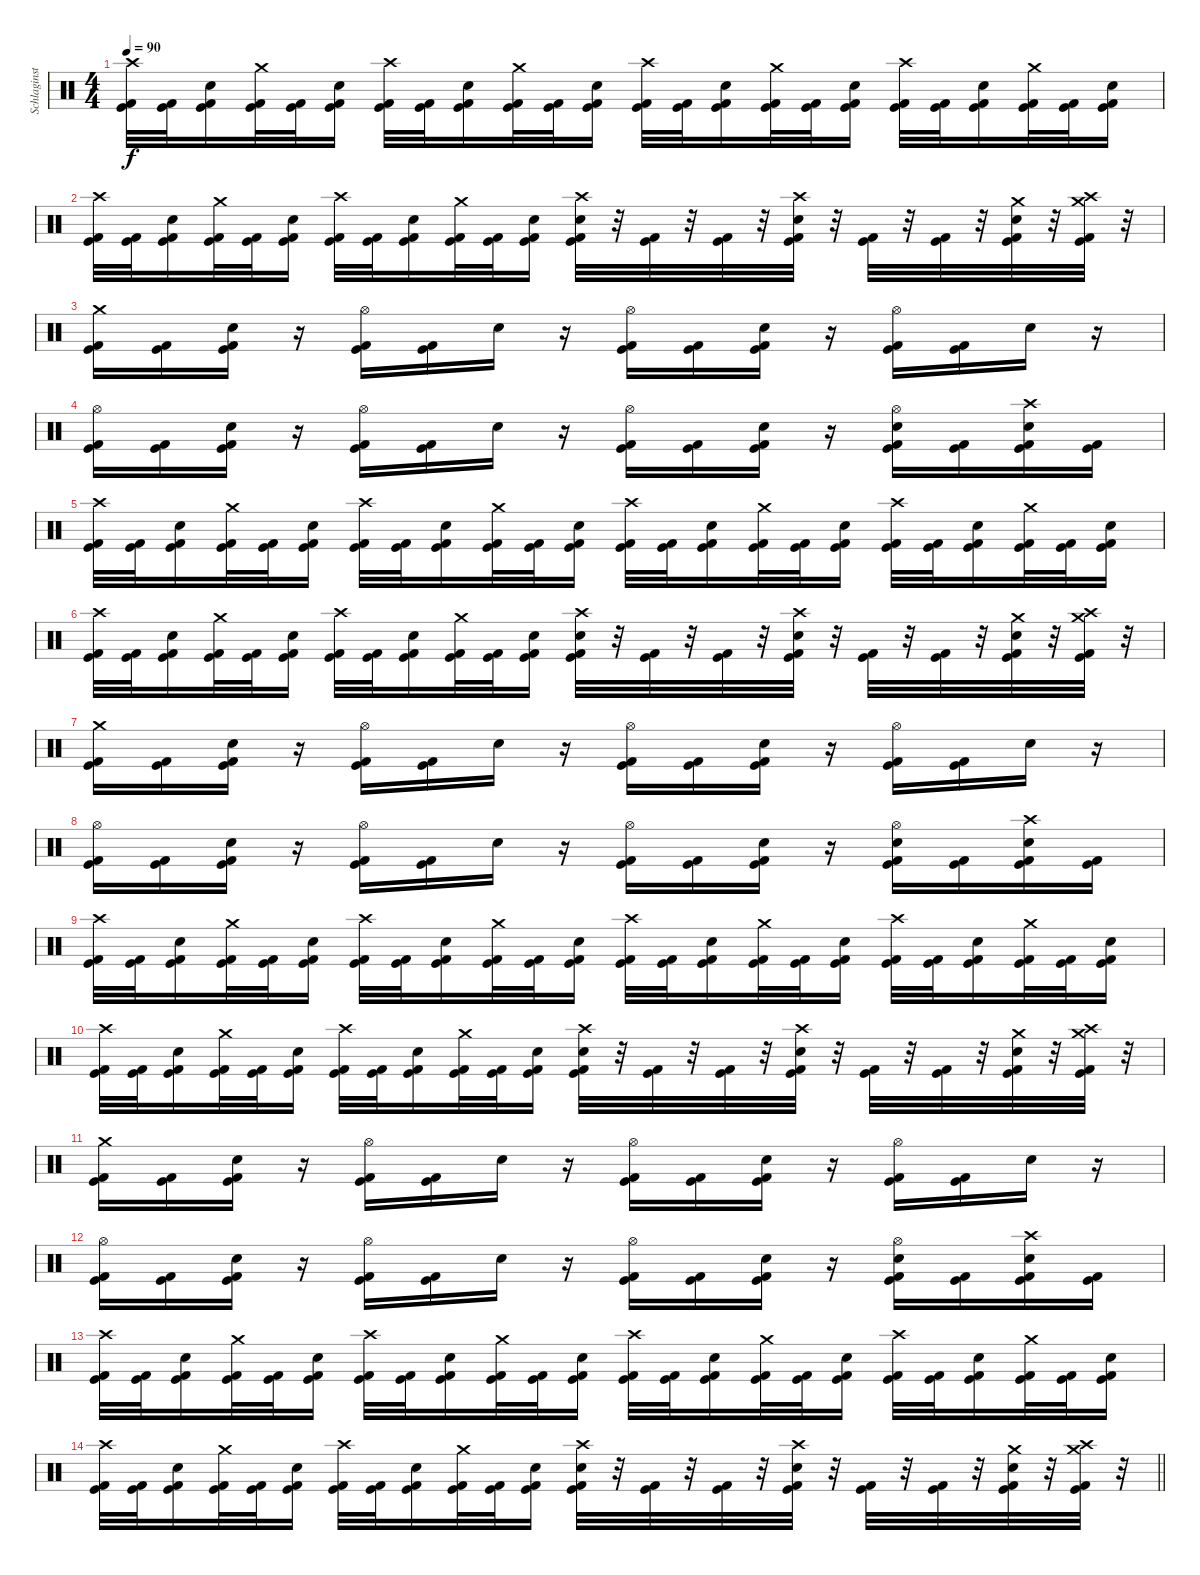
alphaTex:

\track ("Schlaginstrumente - Auswahl" "Schlaginst") {instrument percussion}
\staff {score}
\articulation defaults
\ts (4 4)
\tempo 90
\clef neutral
\ks c
("Crash high (hit)" "Kick (hit)" "Kick (hit) 2").32{dy f} ("Kick (hit)" "Kick (hit) 2").32 ("Electric Snare (hit)" "Kick (hit)" "Kick (hit) 2").16 ("Crash medium (hit)" "Kick (hit)" "Kick (hit) 2").32 ("Kick (hit)" "Kick (hit) 2").32 ("Electric Snare (hit)" "Kick (hit)" "Kick (hit) 2").16 ("Crash high (hit)" "Kick (hit)" "Kick (hit) 2").32 ("Kick (hit)" "Kick (hit) 2").32 ("Electric Snare (hit)" "Kick (hit)" "Kick (hit) 2").16 ("Crash medium (hit)" "Kick (hit)" "Kick (hit) 2").32 ("Kick (hit)" "Kick (hit) 2").32 ("Electric Snare (hit)" "Kick (hit)" "Kick (hit) 2").16 ("Crash high (hit)" "Kick (hit)" "Kick (hit) 2").32 ("Kick (hit)" "Kick (hit) 2").32 ("Electric Snare (hit)" "Kick (hit)" "Kick (hit) 2").16 ("Crash medium (hit)" "Kick (hit)" "Kick (hit) 2").32 ("Kick (hit)" "Kick (hit) 2").32 ("Electric Snare (hit)" "Kick (hit)" "Kick (hit) 2").16 ("Crash high (hit)" "Kick (hit)" "Kick (hit) 2").32 ("Kick (hit)" "Kick (hit) 2").32 ("Electric Snare (hit)" "Kick (hit)" "Kick (hit) 2").16 ("Crash medium (hit)" "Kick (hit)" "Kick (hit) 2").32 ("Kick (hit)" "Kick (hit) 2").32 ("Electric Snare (hit)" "Kick (hit)" "Kick (hit) 2").16 |
("Crash high (hit)" "Kick (hit)" "Kick (hit) 2").32 ("Kick (hit)" "Kick (hit) 2").32 ("Electric Snare (hit)" "Kick (hit)" "Kick (hit) 2").16 ("Crash medium (hit)" "Kick (hit)" "Kick (hit) 2").32 ("Kick (hit)" "Kick (hit) 2").32 ("Electric Snare (hit)" "Kick (hit)" "Kick (hit) 2").16 ("Crash high (hit)" "Kick (hit)" "Kick (hit) 2").32 ("Kick (hit)" "Kick (hit) 2").32 ("Electric Snare (hit)" "Kick (hit)" "Kick (hit) 2").16 ("Crash medium (hit)" "Kick (hit)" "Kick (hit) 2").32 ("Kick (hit)" "Kick (hit) 2").32 ("Electric Snare (hit)" "Kick (hit)" "Kick (hit) 2").16 ("Crash high (hit)" "Electric Snare (hit)" "Kick (hit)" "Kick (hit) 2").32 r.32 ("Kick (hit)" "Kick (hit) 2").32 r.32 ("Kick (hit)" "Kick (hit) 2").32 r.32 ("Crash high (hit)" "Electric Snare (hit)" "Kick (hit)" "Kick (hit) 2").32 r.32 ("Kick (hit)" "Kick (hit) 2").32 r.32 ("Kick (hit)" "Kick (hit) 2").32 r.32 ("Crash medium (hit)" "Electric Snare (hit)" "Kick (hit)" "Kick (hit) 2").32 r.32 ("Crash high (hit)" "Crash medium (hit)" "Kick (hit)" "Kick (hit) 2").32 r.32 |
("Crash medium (hit)" "Kick (hit)" "Kick (hit) 2").16 ("Kick (hit)" "Kick (hit) 2").16 ("Electric Snare (hit)" "Kick (hit)" "Kick (hit) 2").16 r.16 ("Hi-Hat (open)" "Kick (hit)" "Kick (hit) 2").16 ("Kick (hit)" "Kick (hit) 2").16 "Electric Snare (hit)".16 r.16 ("Hi-Hat (open)" "Kick (hit)" "Kick (hit) 2").16 ("Kick (hit)" "Kick (hit) 2").16 ("Electric Snare (hit)" "Kick (hit)" "Kick (hit) 2").16 r.16 ("Hi-Hat (open)" "Kick (hit)" "Kick (hit) 2").16 ("Kick (hit)" "Kick (hit) 2").16 "Electric Snare (hit)".16 r.16 |
("Hi-Hat (open)" "Kick (hit)" "Kick (hit) 2").16 ("Kick (hit)" "Kick (hit) 2").16 ("Electric Snare (hit)" "Kick (hit)" "Kick (hit) 2").16 r.16 ("Hi-Hat (open)" "Kick (hit)" "Kick (hit) 2").16 ("Kick (hit)" "Kick (hit) 2").16 "Electric Snare (hit)".16 r.16 ("Hi-Hat (open)" "Kick (hit)" "Kick (hit) 2").16 ("Kick (hit)" "Kick (hit) 2").16 ("Electric Snare (hit)" "Kick (hit)" "Kick (hit) 2").16 r.16 ("Hi-Hat (open)" "Electric Snare (hit)" "Kick (hit)" "Kick (hit) 2").16 ("Kick (hit)" "Kick (hit) 2").16 ("Crash high (hit)" "Electric Snare (hit)" "Kick (hit)" "Kick (hit) 2").16 ("Kick (hit)" "Kick (hit) 2").16 |
("Crash high (hit)" "Kick (hit)" "Kick (hit) 2").32 ("Kick (hit)" "Kick (hit) 2").32 ("Electric Snare (hit)" "Kick (hit)" "Kick (hit) 2").16 ("Crash medium (hit)" "Kick (hit)" "Kick (hit) 2").32 ("Kick (hit)" "Kick (hit) 2").32 ("Electric Snare (hit)" "Kick (hit)" "Kick (hit) 2").16 ("Crash high (hit)" "Kick (hit)" "Kick (hit) 2").32 ("Kick (hit)" "Kick (hit) 2").32 ("Electric Snare (hit)" "Kick (hit)" "Kick (hit) 2").16 ("Crash medium (hit)" "Kick (hit)" "Kick (hit) 2").32 ("Kick (hit)" "Kick (hit) 2").32 ("Electric Snare (hit)" "Kick (hit)" "Kick (hit) 2").16 ("Crash high (hit)" "Kick (hit)" "Kick (hit) 2").32 ("Kick (hit)" "Kick (hit) 2").32 ("Electric Snare (hit)" "Kick (hit)" "Kick (hit) 2").16 ("Crash medium (hit)" "Kick (hit)" "Kick (hit) 2").32 ("Kick (hit)" "Kick (hit) 2").32 ("Electric Snare (hit)" "Kick (hit)" "Kick (hit) 2").16 ("Crash high (hit)" "Kick (hit)" "Kick (hit) 2").32 ("Kick (hit)" "Kick (hit) 2").32 ("Electric Snare (hit)" "Kick (hit)" "Kick (hit) 2").16 ("Crash medium (hit)" "Kick (hit)" "Kick (hit) 2").32 ("Kick (hit)" "Kick (hit) 2").32 ("Electric Snare (hit)" "Kick (hit)" "Kick (hit) 2").16 |
("Crash high (hit)" "Kick (hit)" "Kick (hit) 2").32 ("Kick (hit)" "Kick (hit) 2").32 ("Electric Snare (hit)" "Kick (hit)" "Kick (hit) 2").16 ("Crash medium (hit)" "Kick (hit)" "Kick (hit) 2").32 ("Kick (hit)" "Kick (hit) 2").32 ("Electric Snare (hit)" "Kick (hit)" "Kick (hit) 2").16 ("Crash high (hit)" "Kick (hit)" "Kick (hit) 2").32 ("Kick (hit)" "Kick (hit) 2").32 ("Electric Snare (hit)" "Kick (hit)" "Kick (hit) 2").16 ("Crash medium (hit)" "Kick (hit)" "Kick (hit) 2").32 ("Kick (hit)" "Kick (hit) 2").32 ("Electric Snare (hit)" "Kick (hit)" "Kick (hit) 2").16 ("Crash high (hit)" "Electric Snare (hit)" "Kick (hit)" "Kick (hit) 2").32 r.32 ("Kick (hit)" "Kick (hit) 2").32 r.32 ("Kick (hit)" "Kick (hit) 2").32 r.32 ("Crash high (hit)" "Electric Snare (hit)" "Kick (hit)" "Kick (hit) 2").32 r.32 ("Kick (hit)" "Kick (hit) 2").32 r.32 ("Kick (hit)" "Kick (hit) 2").32 r.32 ("Crash medium (hit)" "Electric Snare (hit)" "Kick (hit)" "Kick (hit) 2").32 r.32 ("Crash high (hit)" "Crash medium (hit)" "Kick (hit)" "Kick (hit) 2").32 r.32 |
("Crash medium (hit)" "Kick (hit)" "Kick (hit) 2").16 ("Kick (hit)" "Kick (hit) 2").16 ("Electric Snare (hit)" "Kick (hit)" "Kick (hit) 2").16 r.16 ("Hi-Hat (open)" "Kick (hit)" "Kick (hit) 2").16 ("Kick (hit)" "Kick (hit) 2").16 "Electric Snare (hit)".16 r.16 ("Hi-Hat (open)" "Kick (hit)" "Kick (hit) 2").16 ("Kick (hit)" "Kick (hit) 2").16 ("Electric Snare (hit)" "Kick (hit)" "Kick (hit) 2").16 r.16 ("Hi-Hat (open)" "Kick (hit)" "Kick (hit) 2").16 ("Kick (hit)" "Kick (hit) 2").16 "Electric Snare (hit)".16 r.16 |
("Hi-Hat (open)" "Kick (hit)" "Kick (hit) 2").16 ("Kick (hit)" "Kick (hit) 2").16 ("Electric Snare (hit)" "Kick (hit)" "Kick (hit) 2").16 r.16 ("Hi-Hat (open)" "Kick (hit)" "Kick (hit) 2").16 ("Kick (hit)" "Kick (hit) 2").16 "Electric Snare (hit)".16 r.16 ("Hi-Hat (open)" "Kick (hit)" "Kick (hit) 2").16 ("Kick (hit)" "Kick (hit) 2").16 ("Electric Snare (hit)" "Kick (hit)" "Kick (hit) 2").16 r.16 ("Hi-Hat (open)" "Electric Snare (hit)" "Kick (hit)" "Kick (hit) 2").16 ("Kick (hit)" "Kick (hit) 2").16 ("Crash high (hit)" "Electric Snare (hit)" "Kick (hit)" "Kick (hit) 2").16 ("Kick (hit)" "Kick (hit) 2").16 |
("Crash high (hit)" "Kick (hit)" "Kick (hit) 2").32 ("Kick (hit)" "Kick (hit) 2").32 ("Electric Snare (hit)" "Kick (hit)" "Kick (hit) 2").16 ("Crash medium (hit)" "Kick (hit)" "Kick (hit) 2").32 ("Kick (hit)" "Kick (hit) 2").32 ("Electric Snare (hit)" "Kick (hit)" "Kick (hit) 2").16 ("Crash high (hit)" "Kick (hit)" "Kick (hit) 2").32 ("Kick (hit)" "Kick (hit) 2").32 ("Electric Snare (hit)" "Kick (hit)" "Kick (hit) 2").16 ("Crash medium (hit)" "Kick (hit)" "Kick (hit) 2").32 ("Kick (hit)" "Kick (hit) 2").32 ("Electric Snare (hit)" "Kick (hit)" "Kick (hit) 2").16 ("Crash high (hit)" "Kick (hit)" "Kick (hit) 2").32 ("Kick (hit)" "Kick (hit) 2").32 ("Electric Snare (hit)" "Kick (hit)" "Kick (hit) 2").16 ("Crash medium (hit)" "Kick (hit)" "Kick (hit) 2").32 ("Kick (hit)" "Kick (hit) 2").32 ("Electric Snare (hit)" "Kick (hit)" "Kick (hit) 2").16 ("Crash high (hit)" "Kick (hit)" "Kick (hit) 2").32 ("Kick (hit)" "Kick (hit) 2").32 ("Electric Snare (hit)" "Kick (hit)" "Kick (hit) 2").16 ("Crash medium (hit)" "Kick (hit)" "Kick (hit) 2").32 ("Kick (hit)" "Kick (hit) 2").32 ("Electric Snare (hit)" "Kick (hit)" "Kick (hit) 2").16 |
("Crash high (hit)" "Kick (hit)" "Kick (hit) 2").32 ("Kick (hit)" "Kick (hit) 2").32 ("Electric Snare (hit)" "Kick (hit)" "Kick (hit) 2").16 ("Crash medium (hit)" "Kick (hit)" "Kick (hit) 2").32 ("Kick (hit)" "Kick (hit) 2").32 ("Electric Snare (hit)" "Kick (hit)" "Kick (hit) 2").16 ("Crash high (hit)" "Kick (hit)" "Kick (hit) 2").32 ("Kick (hit)" "Kick (hit) 2").32 ("Electric Snare (hit)" "Kick (hit)" "Kick (hit) 2").16 ("Crash medium (hit)" "Kick (hit)" "Kick (hit) 2").32 ("Kick (hit)" "Kick (hit) 2").32 ("Electric Snare (hit)" "Kick (hit)" "Kick (hit) 2").16 ("Crash high (hit)" "Electric Snare (hit)" "Kick (hit)" "Kick (hit) 2").32 r.32 ("Kick (hit)" "Kick (hit) 2").32 r.32 ("Kick (hit)" "Kick (hit) 2").32 r.32 ("Crash high (hit)" "Electric Snare (hit)" "Kick (hit)" "Kick (hit) 2").32 r.32 ("Kick (hit)" "Kick (hit) 2").32 r.32 ("Kick (hit)" "Kick (hit) 2").32 r.32 ("Crash medium (hit)" "Electric Snare (hit)" "Kick (hit)" "Kick (hit) 2").32 r.32 ("Crash high (hit)" "Crash medium (hit)" "Kick (hit)" "Kick (hit) 2").32 r.32 |
("Crash medium (hit)" "Kick (hit)" "Kick (hit) 2").16 ("Kick (hit)" "Kick (hit) 2").16 ("Electric Snare (hit)" "Kick (hit)" "Kick (hit) 2").16 r.16 ("Hi-Hat (open)" "Kick (hit)" "Kick (hit) 2").16 ("Kick (hit)" "Kick (hit) 2").16 "Electric Snare (hit)".16 r.16 ("Hi-Hat (open)" "Kick (hit)" "Kick (hit) 2").16 ("Kick (hit)" "Kick (hit) 2").16 ("Electric Snare (hit)" "Kick (hit)" "Kick (hit) 2").16 r.16 ("Hi-Hat (open)" "Kick (hit)" "Kick (hit) 2").16 ("Kick (hit)" "Kick (hit) 2").16 "Electric Snare (hit)".16 r.16 |
("Hi-Hat (open)" "Kick (hit)" "Kick (hit) 2").16 ("Kick (hit)" "Kick (hit) 2").16 ("Electric Snare (hit)" "Kick (hit)" "Kick (hit) 2").16 r.16 ("Hi-Hat (open)" "Kick (hit)" "Kick (hit) 2").16 ("Kick (hit)" "Kick (hit) 2").16 "Electric Snare (hit)".16 r.16 ("Hi-Hat (open)" "Kick (hit)" "Kick (hit) 2").16 ("Kick (hit)" "Kick (hit) 2").16 ("Electric Snare (hit)" "Kick (hit)" "Kick (hit) 2").16 r.16 ("Hi-Hat (open)" "Electric Snare (hit)" "Kick (hit)" "Kick (hit) 2").16 ("Kick (hit)" "Kick (hit) 2").16 ("Crash high (hit)" "Electric Snare (hit)" "Kick (hit)" "Kick (hit) 2").16 ("Kick (hit)" "Kick (hit) 2").16 |
("Crash high (hit)" "Kick (hit)" "Kick (hit) 2").32 ("Kick (hit)" "Kick (hit) 2").32 ("Electric Snare (hit)" "Kick (hit)" "Kick (hit) 2").16 ("Crash medium (hit)" "Kick (hit)" "Kick (hit) 2").32 ("Kick (hit)" "Kick (hit) 2").32 ("Electric Snare (hit)" "Kick (hit)" "Kick (hit) 2").16 ("Crash high (hit)" "Kick (hit)" "Kick (hit) 2").32 ("Kick (hit)" "Kick (hit) 2").32 ("Electric Snare (hit)" "Kick (hit)" "Kick (hit) 2").16 ("Crash medium (hit)" "Kick (hit)" "Kick (hit) 2").32 ("Kick (hit)" "Kick (hit) 2").32 ("Electric Snare (hit)" "Kick (hit)" "Kick (hit) 2").16 ("Crash high (hit)" "Kick (hit)" "Kick (hit) 2").32 ("Kick (hit)" "Kick (hit) 2").32 ("Electric Snare (hit)" "Kick (hit)" "Kick (hit) 2").16 ("Crash medium (hit)" "Kick (hit)" "Kick (hit) 2").32 ("Kick (hit)" "Kick (hit) 2").32 ("Electric Snare (hit)" "Kick (hit)" "Kick (hit) 2").16 ("Crash high (hit)" "Kick (hit)" "Kick (hit) 2").32 ("Kick (hit)" "Kick (hit) 2").32 ("Electric Snare (hit)" "Kick (hit)" "Kick (hit) 2").16 ("Crash medium (hit)" "Kick (hit)" "Kick (hit) 2").32 ("Kick (hit)" "Kick (hit) 2").32 ("Electric Snare (hit)" "Kick (hit)" "Kick (hit) 2").16 |
\barLineRight lightlight
("Crash high (hit)" "Kick (hit)" "Kick (hit) 2").32 ("Kick (hit)" "Kick (hit) 2").32 ("Electric Snare (hit)" "Kick (hit)" "Kick (hit) 2").16 ("Crash medium (hit)" "Kick (hit)" "Kick (hit) 2").32 ("Kick (hit)" "Kick (hit) 2").32 ("Electric Snare (hit)" "Kick (hit)" "Kick (hit) 2").16 ("Crash high (hit)" "Kick (hit)" "Kick (hit) 2").32 ("Kick (hit)" "Kick (hit) 2").32 ("Electric Snare (hit)" "Kick (hit)" "Kick (hit) 2").16 ("Crash medium (hit)" "Kick (hit)" "Kick (hit) 2").32 ("Kick (hit)" "Kick (hit) 2").32 ("Electric Snare (hit)" "Kick (hit)" "Kick (hit) 2").16 ("Crash high (hit)" "Electric Snare (hit)" "Kick (hit)" "Kick (hit) 2").32 r.32 ("Kick (hit)" "Kick (hit) 2").32 r.32 ("Kick (hit)" "Kick (hit) 2").32 r.32 ("Crash high (hit)" "Electric Snare (hit)" "Kick (hit)" "Kick (hit) 2").32 r.32 ("Kick (hit)" "Kick (hit) 2").32 r.32 ("Kick (hit)" "Kick (hit) 2").32 r.32 ("Crash medium (hit)" "Electric Snare (hit)" "Kick (hit)" "Kick (hit) 2").32 r.32 ("Crash high (hit)" "Crash medium (hit)" "Kick (hit)" "Kick (hit) 2").32 r.32
